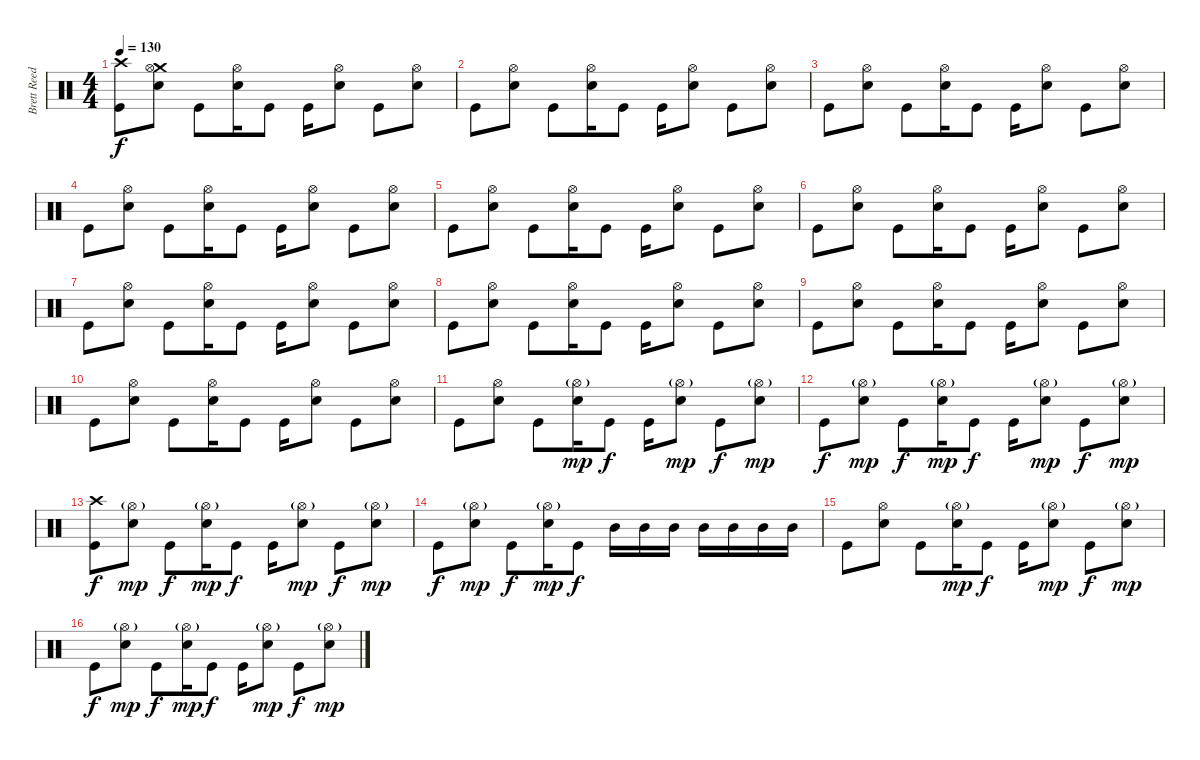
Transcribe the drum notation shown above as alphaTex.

\track ("Brett Reed" "Brett Reed") {instrument percussion}
\staff {score}
\articulation defaults
\ts (4 4)
\tempo 130
\clef neutral
\ks c
("Crash high (hit)" "Kick (hit)").8{dy f} ("Crash medium (hit)" "Hi-Hat (open)" "Electric Snare (hit)").8 "Kick (hit)".8 ("Hi-Hat (open)" "Electric Snare (hit)").16 "Kick (hit)".8 "Kick (hit)".16 ("Hi-Hat (open)" "Electric Snare (hit)").8 "Kick (hit)".8 ("Hi-Hat (open)" "Electric Snare (hit)").8 |
"Kick (hit)".8 ("Hi-Hat (open)" "Electric Snare (hit)").8 "Kick (hit)".8 ("Hi-Hat (open)" "Electric Snare (hit)").16 "Kick (hit)".8 "Kick (hit)".16 ("Hi-Hat (open)" "Electric Snare (hit)").8 "Kick (hit)".8 ("Hi-Hat (open)" "Electric Snare (hit)").8 |
"Kick (hit)".8 ("Hi-Hat (open)" "Electric Snare (hit)").8 "Kick (hit)".8 ("Hi-Hat (open)" "Electric Snare (hit)").16 "Kick (hit)".8 "Kick (hit)".16 ("Hi-Hat (open)" "Electric Snare (hit)").8 "Kick (hit)".8 ("Hi-Hat (open)" "Electric Snare (hit)").8 |
"Kick (hit)".8 ("Hi-Hat (open)" "Electric Snare (hit)").8 "Kick (hit)".8 ("Hi-Hat (open)" "Electric Snare (hit)").16 "Kick (hit)".8 "Kick (hit)".16 ("Hi-Hat (open)" "Electric Snare (hit)").8 "Kick (hit)".8 ("Hi-Hat (open)" "Electric Snare (hit)").8 |
"Kick (hit)".8 ("Hi-Hat (open)" "Electric Snare (hit)").8 "Kick (hit)".8 ("Hi-Hat (open)" "Electric Snare (hit)").16 "Kick (hit)".8 "Kick (hit)".16 ("Hi-Hat (open)" "Electric Snare (hit)").8 "Kick (hit)".8 ("Hi-Hat (open)" "Electric Snare (hit)").8 |
"Kick (hit)".8 ("Hi-Hat (open)" "Electric Snare (hit)").8 "Kick (hit)".8 ("Hi-Hat (open)" "Electric Snare (hit)").16 "Kick (hit)".8 "Kick (hit)".16 ("Hi-Hat (open)" "Electric Snare (hit)").8 "Kick (hit)".8 ("Hi-Hat (open)" "Electric Snare (hit)").8 |
"Kick (hit)".8 ("Hi-Hat (open)" "Electric Snare (hit)").8 "Kick (hit)".8 ("Hi-Hat (open)" "Electric Snare (hit)").16 "Kick (hit)".8 "Kick (hit)".16 ("Hi-Hat (open)" "Electric Snare (hit)").8 "Kick (hit)".8 ("Hi-Hat (open)" "Electric Snare (hit)").8 |
"Kick (hit)".8 ("Hi-Hat (open)" "Electric Snare (hit)").8 "Kick (hit)".8 ("Hi-Hat (open)" "Electric Snare (hit)").16 "Kick (hit)".8 "Kick (hit)".16 ("Hi-Hat (open)" "Electric Snare (hit)").8 "Kick (hit)".8 ("Hi-Hat (open)" "Electric Snare (hit)").8 |
"Kick (hit)".8 ("Hi-Hat (open)" "Electric Snare (hit)").8 "Kick (hit)".8 ("Hi-Hat (open)" "Electric Snare (hit)").16 "Kick (hit)".8 "Kick (hit)".16 ("Hi-Hat (open)" "Electric Snare (hit)").8 "Kick (hit)".8 ("Hi-Hat (open)" "Electric Snare (hit)").8 |
"Kick (hit)".8 ("Hi-Hat (open)" "Electric Snare (hit)").8 "Kick (hit)".8 ("Hi-Hat (open)" "Electric Snare (hit)").16 "Kick (hit)".8 "Kick (hit)".16 ("Hi-Hat (open)" "Electric Snare (hit)").8 "Kick (hit)".8 ("Hi-Hat (open)" "Electric Snare (hit)").8 |
"Kick (hit)".8 ("Hi-Hat (open)" "Electric Snare (hit)").8 "Kick (hit)".8 ("Hi-Hat (open)"{g} "Electric Snare (hit)").16{dy mp} "Kick (hit)".8{dy f} "Kick (hit)".16 ("Hi-Hat (open)"{g} "Electric Snare (hit)").8{dy mp} "Kick (hit)".8{dy f} ("Hi-Hat (open)"{g} "Electric Snare (hit)").8{dy mp} |
"Kick (hit)".8{dy f} ("Hi-Hat (open)"{g} "Electric Snare (hit)").8{dy mp} "Kick (hit)".8{dy f} ("Hi-Hat (open)"{g} "Electric Snare (hit)").16{dy mp} "Kick (hit)".8{dy f} "Kick (hit)".16 ("Hi-Hat (open)"{g} "Electric Snare (hit)").8{dy mp} "Kick (hit)".8{dy f} ("Hi-Hat (open)"{g} "Electric Snare (hit)").8{dy mp} |
("Crash high (hit)" "Kick (hit)").8{dy f} ("Hi-Hat (open)"{g} "Electric Snare (hit)").8{dy mp} "Kick (hit)".8{dy f} ("Hi-Hat (open)"{g} "Electric Snare (hit)").16{dy mp} "Kick (hit)".8{dy f} "Kick (hit)".16 ("Hi-Hat (open)"{g} "Electric Snare (hit)").8{dy mp} "Kick (hit)".8{dy f} ("Hi-Hat (open)"{g} "Electric Snare (hit)").8{dy mp} |
"Kick (hit)".8{dy f} ("Hi-Hat (open)"{g} "Electric Snare (hit)").8{dy mp} "Kick (hit)".8{dy f} ("Hi-Hat (open)"{g} "Electric Snare (hit)").16{dy mp} "Kick (hit)".8{dy f} "Mid Tom (hit)".16 "Mid Tom (hit)".16 "Mid Tom (hit)".16 "Mid Tom (hit)".16 "Mid Tom (hit)".16 "Mid Tom (hit)".16 "Mid Tom (hit)".16 |
"Kick (hit)".8 ("Hi-Hat (open)" "Electric Snare (hit)").8 "Kick (hit)".8 ("Hi-Hat (open)"{g} "Electric Snare (hit)").16{dy mp} "Kick (hit)".8{dy f} "Kick (hit)".16 ("Hi-Hat (open)"{g} "Electric Snare (hit)").8{dy mp} "Kick (hit)".8{dy f} ("Hi-Hat (open)"{g} "Electric Snare (hit)").8{dy mp} |
"Kick (hit)".8{dy f} ("Hi-Hat (open)"{g} "Electric Snare (hit)").8{dy mp} "Kick (hit)".8{dy f} ("Hi-Hat (open)"{g} "Electric Snare (hit)").16{dy mp} "Kick (hit)".8{dy f} "Kick (hit)".16 ("Hi-Hat (open)"{g} "Electric Snare (hit)").8{dy mp} "Kick (hit)".8{dy f} ("Hi-Hat (open)"{g} "Electric Snare (hit)").8{dy mp}
